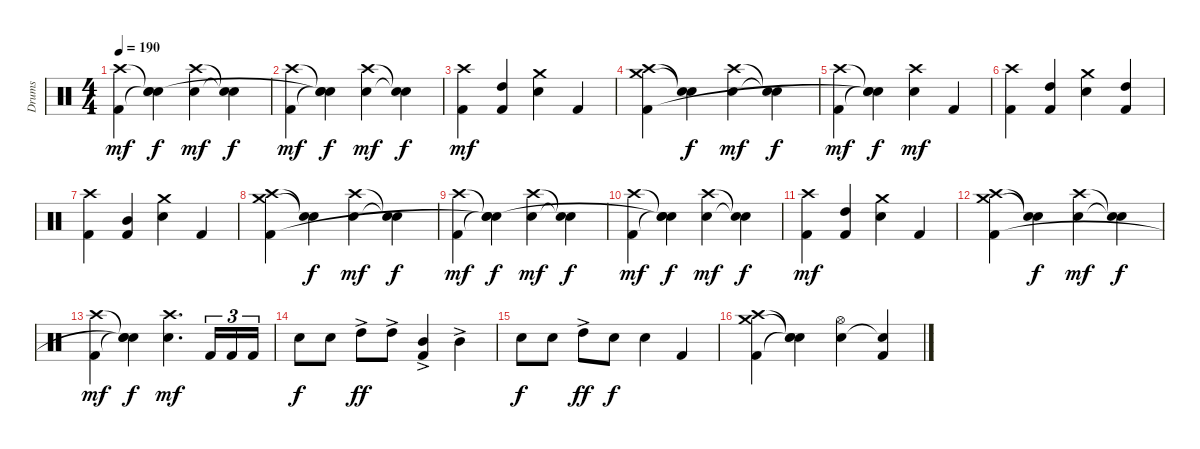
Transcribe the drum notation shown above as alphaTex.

\track ("Drums" "Drums") {instrument percussion}
\staff {score}
\articulation defaults
\ts (4 4)
\tempo 190
\clef neutral
\ks c
("Crash high (hit)" "Kick (hit) 2").4{dy mf} ("Snare (hit)"{t} "Snare (hit) 2"{t} "Snare (hit)"{t}).4{dy f} ("Crash high (hit)" "Snare (hit) 2").4{dy mf} ("Snare (hit)"{t} "Snare (hit)"{t}).4{dy f} |
("Crash high (hit)" "Kick (hit) 2").4{dy mf} ("Snare (hit)"{t} "Snare (hit) 2"{t} "Snare (hit)"{t}).4{dy f} ("Crash high (hit)" "Snare (hit) 2").4{dy mf} ("Snare (hit)"{t} "Snare (hit)"{t}).4{dy f} |
("Crash high (hit)" "Kick (hit) 2").4{dy mf} ("Kick (hit) 2" "High Tom (hit)").4 ("Crash medium (hit)" "Snare (hit) 2").4 "Kick (hit) 2".4 |
("Crash high (hit)" "Crash medium (hit)" "Kick (hit) 2").4 ("Snare (hit) 2"{t} "Snare (hit)"{t}).4{dy f} ("Crash high (hit)" "Snare (hit) 2").4{dy mf} ("Snare (hit)"{t} "Snare (hit)"{t}).4{dy f} |
("Crash high (hit)" "Kick (hit) 2").4{dy mf} ("Snare (hit)"{t} "Snare (hit) 2"{t} "Snare (hit)"{t}).4{dy f} ("Crash high (hit)" "Snare (hit) 2").4{dy mf} "Kick (hit) 2".4 |
("Kick (hit) 2" "Crash high (hit)").4 ("High Tom (hit)" "Kick (hit) 2").4 ("Crash medium (hit)" "Snare (hit) 2").4 ("High Tom (hit)" "Kick (hit) 2").4 |
("Crash high (hit)" "Kick (hit) 2").4 ("Kick (hit) 2" "Mid Tom (hit)").4 ("Crash medium (hit)" "Snare (hit) 2").4 "Kick (hit) 2".4 |
("Crash high (hit)" "Crash medium (hit)" "Kick (hit) 2").4 ("Snare (hit) 2"{t} "Snare (hit)"{t}).4{dy f} ("Crash high (hit)" "Snare (hit) 2").4{dy mf} ("Snare (hit)"{t} "Snare (hit)"{t}).4{dy f} |
("Crash high (hit)" "Kick (hit) 2").4{dy mf} ("Snare (hit)"{t} "Snare (hit) 2"{t} "Snare (hit)"{t}).4{dy f} ("Crash high (hit)" "Snare (hit) 2").4{dy mf} ("Snare (hit)"{t} "Snare (hit)"{t}).4{dy f} |
("Crash high (hit)" "Kick (hit) 2").4{dy mf} ("Snare (hit)"{t} "Snare (hit) 2"{t} "Snare (hit)"{t}).4{dy f} ("Crash high (hit)" "Snare (hit) 2").4{dy mf} ("Snare (hit)"{t} "Snare (hit)"{t}).4{dy f} |
("Crash high (hit)" "Kick (hit) 2").4{dy mf} ("Kick (hit) 2" "High Tom (hit)").4 ("Crash medium (hit)" "Snare (hit) 2").4 "Kick (hit) 2".4 |
("Crash high (hit)" "Crash medium (hit)" "Kick (hit) 2").4 ("Snare (hit) 2"{t} "Snare (hit)"{t}).4{dy f} ("Crash high (hit)" "Snare (hit) 2").4{dy mf} ("Snare (hit)"{t} "Snare (hit)"{t}).4{dy f} |
("Crash high (hit)" "Kick (hit) 2").4{dy mf} ("Snare (hit)"{t} "Snare (hit) 2"{t} "Snare (hit)"{t}).4{dy f} ("Crash high (hit)" "Snare (hit) 2").4{d dy mf} "Kick (hit) 2".16{tu (3 2)} "Kick (hit) 2".16{tu (3 2)} "Kick (hit) 2".16{tu (3 2)} |
"Snare (hit) 2".8{dy f} "Snare (hit) 2".8 "High Tom (hit)"{ac}.8{dy ff} "High Tom (hit)"{ac}.8 ("Mid Tom (hit)"{ac} "Kick (hit) 2").4 "Mid Tom (hit)"{ac}.4 |
"Snare (hit) 2".8{dy f} "Snare (hit) 2".8 "High Tom (hit)"{ac}.8{dy ff} "Snare (hit) 2".8{dy f} "Snare (hit) 2".4 "Kick (hit) 2".4 |
("Crash high (hit)" "Crash medium (hit)" "Kick (hit) 2").4 ("Snare (hit)"{t} "Snare (hit)"{t} "Snare (hit)"{t}).4 ("Hi-Hat (open)" "Snare (hit) 2").4 ("Kick (hit) 2" "Snare (hit)"{t}).4
